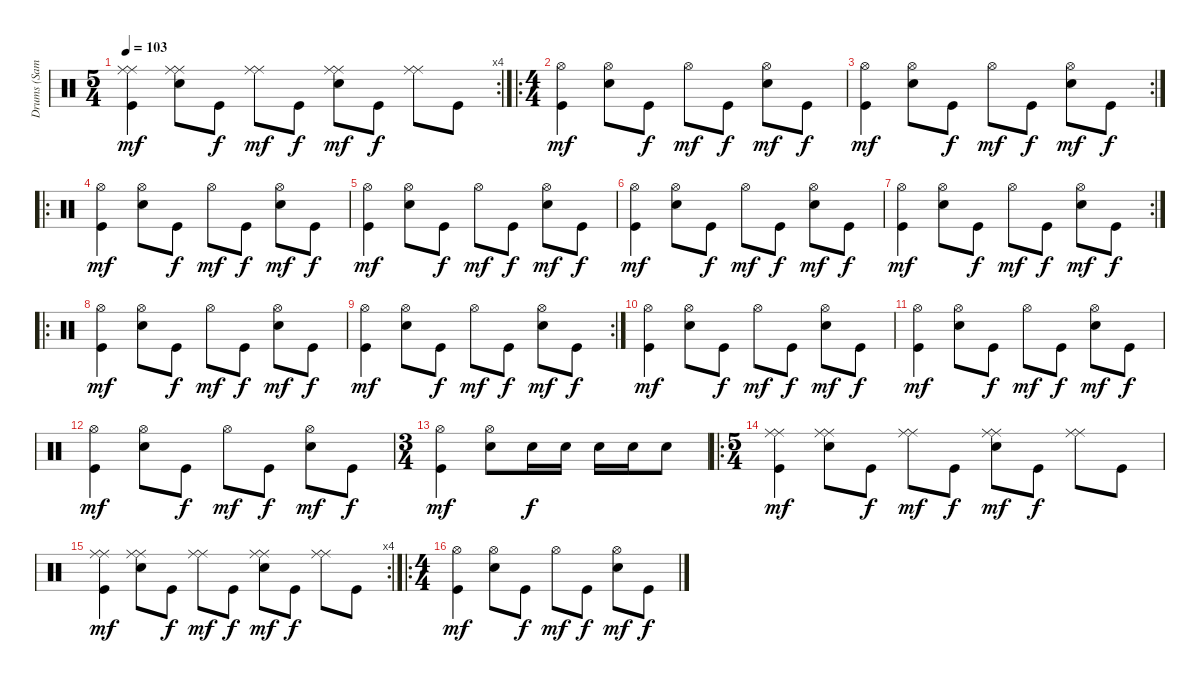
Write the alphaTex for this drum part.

\track ("Drums (Sami Karppinen)" "Drums (Sam") {instrument percussion}
\staff {score}
\articulation defaults
\rc 4
\ts (5 4)
\tempo 103
\clef neutral
\ks c
("Kick (hit)" "Ride (middle)" "Ride (middle)").4{dy mf} ("Electric Snare (hit)" "Ride (middle)" "Ride (middle)").8 "Kick (hit)".8{dy f} ("Ride (middle)" "Ride (middle)").8{dy mf} "Kick (hit)".8{dy f} ("Electric Snare (hit)" "Ride (middle)" "Ride (middle)").8{dy mf} "Kick (hit)".8{dy f} ("Ride (middle)" "Ride (middle)").8 "Kick (hit)".8 |
\ro
\ts (4 4)
("Kick (hit)" "Hi-Hat (open)").4{dy mf} ("Electric Snare (hit)" "Hi-Hat (open)").8 "Kick (hit)".8{dy f} "Hi-Hat (open)".8{dy mf} "Kick (hit)".8{dy f} ("Electric Snare (hit)" "Hi-Hat (open)").8{dy mf} "Kick (hit)".8{dy f} |
\rc 2
("Kick (hit)" "Hi-Hat (open)").4{dy mf} ("Electric Snare (hit)" "Hi-Hat (open)").8 "Kick (hit)".8{dy f} "Hi-Hat (open)".8{dy mf} "Kick (hit)".8{dy f} ("Electric Snare (hit)" "Hi-Hat (open)").8{dy mf} "Kick (hit)".8{dy f} |
\ro
("Kick (hit)" "Hi-Hat (open)").4{dy mf} ("Electric Snare (hit)" "Hi-Hat (open)").8 "Kick (hit)".8{dy f} "Hi-Hat (open)".8{dy mf} "Kick (hit)".8{dy f} ("Electric Snare (hit)" "Hi-Hat (open)").8{dy mf} "Kick (hit)".8{dy f} |
("Kick (hit)" "Hi-Hat (open)").4{dy mf} ("Electric Snare (hit)" "Hi-Hat (open)").8 "Kick (hit)".8{dy f} "Hi-Hat (open)".8{dy mf} "Kick (hit)".8{dy f} ("Electric Snare (hit)" "Hi-Hat (open)").8{dy mf} "Kick (hit)".8{dy f} |
("Kick (hit)" "Hi-Hat (open)").4{dy mf} ("Electric Snare (hit)" "Hi-Hat (open)").8 "Kick (hit)".8{dy f} "Hi-Hat (open)".8{dy mf} "Kick (hit)".8{dy f} ("Electric Snare (hit)" "Hi-Hat (open)").8{dy mf} "Kick (hit)".8{dy f} |
\rc 2
("Kick (hit)" "Hi-Hat (open)").4{dy mf} ("Electric Snare (hit)" "Hi-Hat (open)").8 "Kick (hit)".8{dy f} "Hi-Hat (open)".8{dy mf} "Kick (hit)".8{dy f} ("Electric Snare (hit)" "Hi-Hat (open)").8{dy mf} "Kick (hit)".8{dy f} |
\ro
("Kick (hit)" "Hi-Hat (open)").4{dy mf} ("Electric Snare (hit)" "Hi-Hat (open)").8 "Kick (hit)".8{dy f} "Hi-Hat (open)".8{dy mf} "Kick (hit)".8{dy f} ("Electric Snare (hit)" "Hi-Hat (open)").8{dy mf} "Kick (hit)".8{dy f} |
\rc 2
("Kick (hit)" "Hi-Hat (open)").4{dy mf} ("Electric Snare (hit)" "Hi-Hat (open)").8 "Kick (hit)".8{dy f} "Hi-Hat (open)".8{dy mf} "Kick (hit)".8{dy f} ("Electric Snare (hit)" "Hi-Hat (open)").8{dy mf} "Kick (hit)".8{dy f} |
("Kick (hit)" "Hi-Hat (open)").4{dy mf} ("Electric Snare (hit)" "Hi-Hat (open)").8 "Kick (hit)".8{dy f} "Hi-Hat (open)".8{dy mf} "Kick (hit)".8{dy f} ("Electric Snare (hit)" "Hi-Hat (open)").8{dy mf} "Kick (hit)".8{dy f} |
("Kick (hit)" "Hi-Hat (open)").4{dy mf} ("Electric Snare (hit)" "Hi-Hat (open)").8 "Kick (hit)".8{dy f} "Hi-Hat (open)".8{dy mf} "Kick (hit)".8{dy f} ("Electric Snare (hit)" "Hi-Hat (open)").8{dy mf} "Kick (hit)".8{dy f} |
("Kick (hit)" "Hi-Hat (open)").4{dy mf} ("Electric Snare (hit)" "Hi-Hat (open)").8 "Kick (hit)".8{dy f} "Hi-Hat (open)".8{dy mf} "Kick (hit)".8{dy f} ("Electric Snare (hit)" "Hi-Hat (open)").8{dy mf} "Kick (hit)".8{dy f} |
\ts (3 4)
("Kick (hit)" "Hi-Hat (open)").4{dy mf} ("Electric Snare (hit)" "Hi-Hat (open)").8 "Electric Snare (hit)".16{dy f} "Electric Snare (hit)".16 "Electric Snare (hit)".16 "Electric Snare (hit)".16 "Electric Snare (hit)".8 |
\ro
\ts (5 4)
("Kick (hit)" "Ride (middle)" "Ride (middle)").4{dy mf} ("Electric Snare (hit)" "Ride (middle)" "Ride (middle)").8 "Kick (hit)".8{dy f} ("Ride (middle)" "Ride (middle)").8{dy mf} "Kick (hit)".8{dy f} ("Electric Snare (hit)" "Ride (middle)" "Ride (middle)").8{dy mf} "Kick (hit)".8{dy f} ("Ride (middle)" "Ride (middle)").8 "Kick (hit)".8 |
\rc 4
("Kick (hit)" "Ride (middle)" "Ride (middle)").4{dy mf} ("Electric Snare (hit)" "Ride (middle)" "Ride (middle)").8 "Kick (hit)".8{dy f} ("Ride (middle)" "Ride (middle)").8{dy mf} "Kick (hit)".8{dy f} ("Electric Snare (hit)" "Ride (middle)" "Ride (middle)").8{dy mf} "Kick (hit)".8{dy f} ("Ride (middle)" "Ride (middle)").8 "Kick (hit)".8 |
\ro
\ts (4 4)
("Kick (hit)" "Hi-Hat (open)").4{dy mf} ("Electric Snare (hit)" "Hi-Hat (open)").8 "Kick (hit)".8{dy f} "Hi-Hat (open)".8{dy mf} "Kick (hit)".8{dy f} ("Electric Snare (hit)" "Hi-Hat (open)").8{dy mf} "Kick (hit)".8{dy f}
